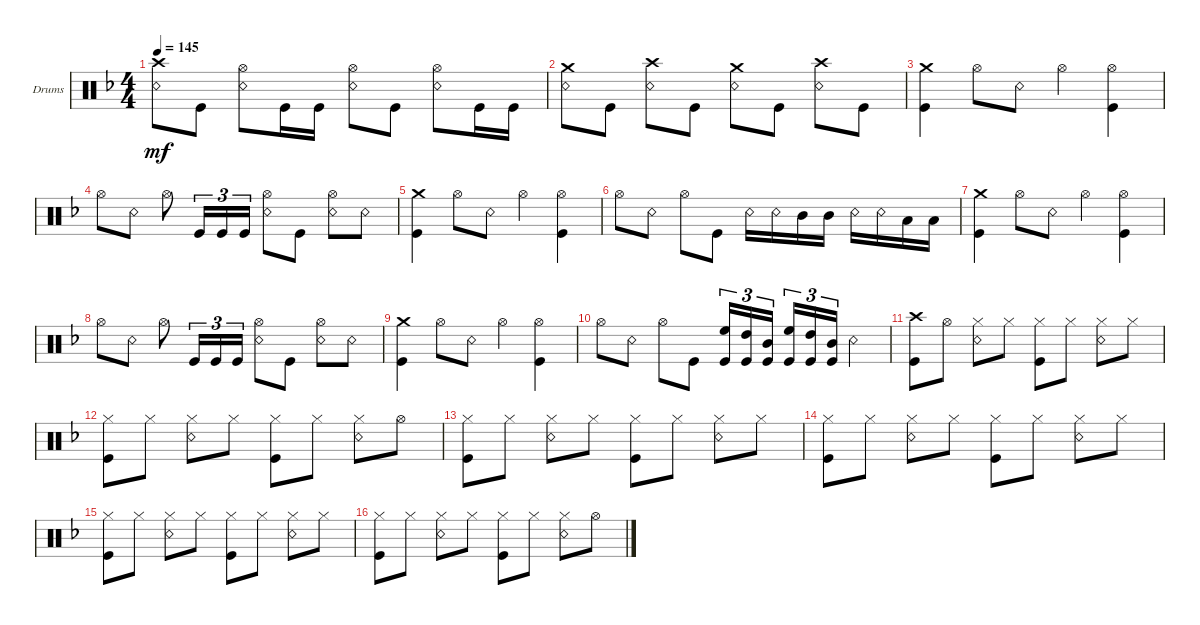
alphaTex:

\defaultSystemsLayout 4
\bracketExtendMode groupsimilarinstruments
\firstSystemTrackNameOrientation horizontal
\otherSystemsTrackNameOrientation horizontal
\track ("Drumkit" "Drums") {instrument percussion}
\staff {score}
\articulation defaults
\ts (4 4)
\tempo 145
\clef neutral
\ks dminor
("Crash high (hit)" "Snare (rim shot)").8{dy mf} "Kick (hit)".8 ("Hi-Hat (open)" "Snare (rim shot)").8 "Kick (hit)".16 "Kick (hit)".16 ("Snare (rim shot)" "Hi-Hat (open)").8 "Kick (hit)".8 ("Snare (rim shot)" "Hi-Hat (open)").8 "Kick (hit)".16 "Kick (hit)".16 |
("Snare (rim shot)" "Crash medium (hit)").8 "Kick (hit)".8 ("Snare (rim shot)" "Crash high (hit)").8 "Kick (hit)".8 ("Snare (rim shot)" "Crash medium (hit)").8 "Kick (hit)".8 ("Snare (rim shot)" "Crash high (hit)").8 "Kick (hit)".8 |
("Kick (hit)" "Crash medium (hit)").4 "Hi-Hat (open)".8 "Snare (rim shot)".8 "Hi-Hat (open)".4 ("Kick (hit)" "Hi-Hat (open)").4 |
"Hi-Hat (open)".8 "Snare (rim shot)".8 "Hi-Hat (open)".8 "Kick (hit)".16{tu (3 2)} "Kick (hit)".16{tu (3 2)} "Kick (hit)".16{tu (3 2)} ("Snare (rim shot)" "Hi-Hat (open)").8 "Kick (hit)".8 ("Hi-Hat (open)" "Snare (rim shot)").8 "Snare (rim shot)".8 |
("Kick (hit)" "Crash medium (hit)").4 "Hi-Hat (open)".8 "Snare (rim shot)".8 "Hi-Hat (open)".4 ("Kick (hit)" "Hi-Hat (open)").4 |
"Hi-Hat (open)".8 "Snare (rim shot)".8 "Hi-Hat (open)".8 "Kick (hit)".8 "Snare (rim shot)".16 "Snare (rim shot)".16 "Mid Tom (hit)".16 "Mid Tom (hit)".16 "Snare (rim shot)".16 "Snare (rim shot)".16 "Low Tom (hit)".16 "Low Tom (hit)".16 |
("Kick (hit)" "Crash medium (hit)").4 "Hi-Hat (open)".8 "Snare (rim shot)".8 "Hi-Hat (open)".4 ("Kick (hit)" "Hi-Hat (open)").4 |
"Hi-Hat (open)".8 "Snare (rim shot)".8 "Hi-Hat (open)".8 "Kick (hit)".16{tu (3 2)} "Kick (hit)".16{tu (3 2)} "Kick (hit)".16{tu (3 2)} ("Snare (rim shot)" "Hi-Hat (open)").8 "Kick (hit)".8 ("Hi-Hat (open)" "Snare (rim shot)").8 "Snare (rim shot)".8 |
("Kick (hit)" "Crash medium (hit)").4 "Hi-Hat (open)".8 "Snare (rim shot)".8 "Hi-Hat (open)".4 ("Kick (hit)" "Hi-Hat (open)").4 |
"Hi-Hat (open)".8 "Snare (rim shot)".8 "Hi-Hat (open)".8 "Kick (hit)".8 ("High Floor Tom (hit)" "Kick (hit)").16{tu (3 2)} ("High Tom (hit)" "Kick (hit)").16{tu (3 2)} ("Mid Tom (hit)" "Kick (hit)").16{tu (3 2)} ("High Floor Tom (hit)" "Kick (hit)").16{tu (3 2)} ("High Tom (hit)" "Kick (hit)").16{tu (3 2)} ("Mid Tom (hit)" "Kick (hit)").16{tu (3 2)} "Snare (rim shot)".4 |
("Crash high (hit)" "Kick (hit)").8 "Hi-Hat (open)".8 ("Hi-Hat (closed)" "Snare (rim shot)").8 "Hi-Hat (closed)".8 ("Kick (hit)" "Hi-Hat (closed)").8 "Hi-Hat (closed)".8 ("Hi-Hat (closed)" "Snare (rim shot)").8 "Hi-Hat (closed)".8 |
("Kick (hit)" "Hi-Hat (closed)").8 "Hi-Hat (closed)".8 ("Hi-Hat (closed)" "Snare (rim shot)").8 "Hi-Hat (closed)".8 ("Kick (hit)" "Hi-Hat (closed)").8 "Hi-Hat (closed)".8 ("Hi-Hat (closed)" "Snare (rim shot)").8 "Hi-Hat (open)".8 |
("Kick (hit)" "Hi-Hat (closed)").8 "Hi-Hat (closed)".8 ("Hi-Hat (closed)" "Snare (rim shot)").8 "Hi-Hat (closed)".8 ("Kick (hit)" "Hi-Hat (closed)").8 "Hi-Hat (closed)".8 ("Hi-Hat (closed)" "Snare (rim shot)").8 "Hi-Hat (closed)".8 |
("Kick (hit)" "Hi-Hat (closed)").8 "Hi-Hat (closed)".8 ("Hi-Hat (closed)" "Snare (rim shot)").8 "Hi-Hat (closed)".8 ("Kick (hit)" "Hi-Hat (closed)").8 "Hi-Hat (closed)".8 ("Hi-Hat (closed)" "Snare (rim shot)").8 "Hi-Hat (closed)".8 |
("Kick (hit)" "Hi-Hat (closed)").8 "Hi-Hat (closed)".8 ("Hi-Hat (closed)" "Snare (rim shot)").8 "Hi-Hat (closed)".8 ("Kick (hit)" "Hi-Hat (closed)").8 "Hi-Hat (closed)".8 ("Hi-Hat (closed)" "Snare (rim shot)").8 "Hi-Hat (closed)".8 |
("Kick (hit)" "Hi-Hat (closed)").8 "Hi-Hat (closed)".8 ("Hi-Hat (closed)" "Snare (rim shot)").8 "Hi-Hat (closed)".8 ("Kick (hit)" "Hi-Hat (closed)").8 "Hi-Hat (closed)".8 ("Hi-Hat (closed)" "Snare (rim shot)").8 "Hi-Hat (open)".8
